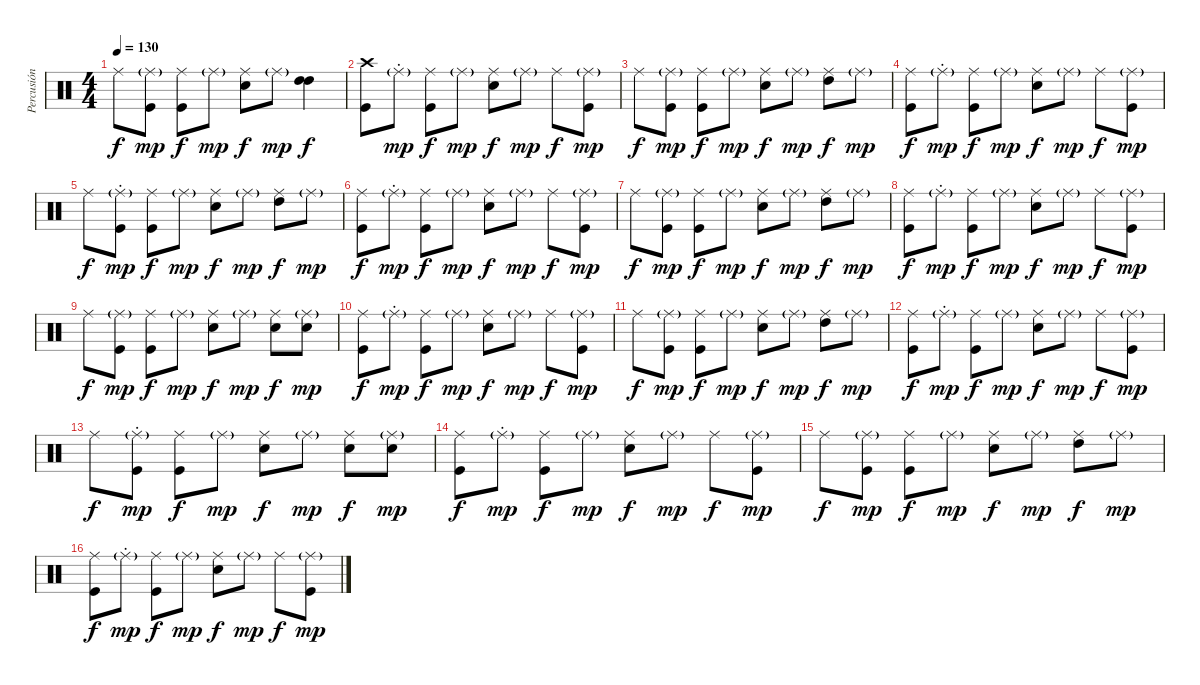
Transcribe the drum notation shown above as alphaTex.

\track ("Percusión" "Percusión") {instrument percussion}
\staff {score}
\articulation defaults
\ts (4 4)
\tempo 130
\clef neutral
\ks c "Ride (middle)".8{dy f}
("Ride (middle)"{g} "Kick (hit)").8{dy mp} ("Ride (middle)" "Kick (hit)").8{dy f} "Ride (middle)"{g}.8{dy mp} ("Ride (middle)" "Electric Snare (hit)").8{dy f} "Ride (middle)"{g}.8{dy mp} ("High Tom (hit)" "High Tom (hit)").4{dy f} |
("Crash high (hit)" "Kick (hit)").8 "Ride (middle)"{g st}.8{dy mp} ("Ride (middle)" "Kick (hit)").8{dy f} "Ride (middle)"{g}.8{dy mp} ("Ride (middle)" "Electric Snare (hit)").8{dy f} "Ride (middle)"{g}.8{dy mp} "Ride (middle)".8{dy f} ("Ride (middle)"{g} "Kick (hit)").8{dy mp} |
"Ride (middle)".8{dy f} ("Ride (middle)"{g} "Kick (hit)").8{dy mp} ("Ride (middle)" "Kick (hit)").8{dy f} "Ride (middle)"{g}.8{dy mp} ("Ride (middle)" "Electric Snare (hit)").8{dy f} "Ride (middle)"{g}.8{dy mp} ("High Tom (hit)" "Ride (middle)").8{dy f} "Ride (middle)"{g}.8{dy mp} |
("Ride (middle)" "Kick (hit)").8{dy f} "Ride (middle)"{g st}.8{dy mp} ("Ride (middle)" "Kick (hit)").8{dy f} "Ride (middle)"{g}.8{dy mp} ("Ride (middle)" "Electric Snare (hit)").8{dy f} "Ride (middle)"{g}.8{dy mp} "Ride (middle)".8{dy f} ("Ride (middle)"{g} "Kick (hit)").8{dy mp} |
"Ride (middle)".8{dy f} ("Ride (middle)"{g st} "Kick (hit)").8{dy mp} ("Ride (middle)" "Kick (hit)").8{dy f} "Ride (middle)"{g}.8{dy mp} ("Ride (middle)" "Electric Snare (hit)").8{dy f} "Ride (middle)"{g}.8{dy mp} ("High Tom (hit)" "Ride (middle)").8{dy f} "Ride (middle)"{g}.8{dy mp} |
("Ride (middle)" "Kick (hit)").8{dy f} "Ride (middle)"{g st}.8{dy mp} ("Ride (middle)" "Kick (hit)").8{dy f} "Ride (middle)"{g}.8{dy mp} ("Ride (middle)" "Electric Snare (hit)").8{dy f} "Ride (middle)"{g}.8{dy mp} "Ride (middle)".8{dy f} ("Ride (middle)"{g} "Kick (hit)").8{dy mp} |
"Ride (middle)".8{dy f} ("Ride (middle)"{g} "Kick (hit)").8{dy mp} ("Ride (middle)" "Kick (hit)").8{dy f} "Ride (middle)"{g}.8{dy mp} ("Ride (middle)" "Electric Snare (hit)").8{dy f} "Ride (middle)"{g}.8{dy mp} ("High Tom (hit)" "Ride (middle)").8{dy f} "Ride (middle)"{g}.8{dy mp} |
("Ride (middle)" "Kick (hit)").8{dy f} "Ride (middle)"{g st}.8{dy mp} ("Ride (middle)" "Kick (hit)").8{dy f} "Ride (middle)"{g}.8{dy mp} ("Ride (middle)" "Electric Snare (hit)").8{dy f} "Ride (middle)"{g}.8{dy mp} "Ride (middle)".8{dy f} ("Ride (middle)"{g} "Kick (hit)").8{dy mp} |
"Ride (middle)".8{dy f} ("Ride (middle)"{g} "Kick (hit)").8{dy mp} ("Ride (middle)" "Kick (hit)").8{dy f} "Ride (middle)"{g}.8{dy mp} ("Ride (middle)" "Electric Snare (hit)").8{dy f} "Ride (middle)"{g}.8{dy mp} ("Ride (middle)" "Electric Snare (hit)").8{dy f} ("Ride (middle)"{g} "Electric Snare (hit)").8{dy mp} |
("Ride (middle)" "Kick (hit)").8{dy f} "Ride (middle)"{g st}.8{dy mp} ("Ride (middle)" "Kick (hit)").8{dy f} "Ride (middle)"{g}.8{dy mp} ("Ride (middle)" "Electric Snare (hit)").8{dy f} "Ride (middle)"{g}.8{dy mp} "Ride (middle)".8{dy f} ("Ride (middle)"{g} "Kick (hit)").8{dy mp} |
"Ride (middle)".8{dy f} ("Ride (middle)"{g} "Kick (hit)").8{dy mp} ("Ride (middle)" "Kick (hit)").8{dy f} "Ride (middle)"{g}.8{dy mp} ("Ride (middle)" "Electric Snare (hit)").8{dy f} "Ride (middle)"{g}.8{dy mp} ("High Tom (hit)" "Ride (middle)").8{dy f} "Ride (middle)"{g}.8{dy mp} |
("Ride (middle)" "Kick (hit)").8{dy f} "Ride (middle)"{g st}.8{dy mp} ("Ride (middle)" "Kick (hit)").8{dy f} "Ride (middle)"{g}.8{dy mp} ("Ride (middle)" "Electric Snare (hit)").8{dy f} "Ride (middle)"{g}.8{dy mp} "Ride (middle)".8{dy f} ("Ride (middle)"{g} "Kick (hit)").8{dy mp} |
"Ride (middle)".8{dy f} ("Ride (middle)"{g st} "Kick (hit)").8{dy mp} ("Ride (middle)" "Kick (hit)").8{dy f} "Ride (middle)"{g}.8{dy mp} ("Ride (middle)" "Electric Snare (hit)").8{dy f} "Ride (middle)"{g}.8{dy mp} ("Ride (middle)" "Electric Snare (hit)").8{dy f} ("Ride (middle)"{g} "Electric Snare (hit)").8{dy mp} |
("Ride (middle)" "Kick (hit)").8{dy f} "Ride (middle)"{g st}.8{dy mp} ("Ride (middle)" "Kick (hit)").8{dy f} "Ride (middle)"{g}.8{dy mp} ("Ride (middle)" "Electric Snare (hit)").8{dy f} "Ride (middle)"{g}.8{dy mp} "Ride (middle)".8{dy f} ("Ride (middle)"{g} "Kick (hit)").8{dy mp} |
"Ride (middle)".8{dy f} ("Ride (middle)"{g} "Kick (hit)").8{dy mp} ("Ride (middle)" "Kick (hit)").8{dy f} "Ride (middle)"{g}.8{dy mp} ("Ride (middle)" "Electric Snare (hit)").8{dy f} "Ride (middle)"{g}.8{dy mp} ("High Tom (hit)" "Ride (middle)").8{dy f} "Ride (middle)"{g}.8{dy mp} |
("Ride (middle)" "Kick (hit)").8{dy f} "Ride (middle)"{g st}.8{dy mp} ("Ride (middle)" "Kick (hit)").8{dy f} "Ride (middle)"{g}.8{dy mp} ("Ride (middle)" "Electric Snare (hit)").8{dy f} "Ride (middle)"{g}.8{dy mp} "Ride (middle)".8{dy f} ("Ride (middle)"{g} "Kick (hit)").8{dy mp}
